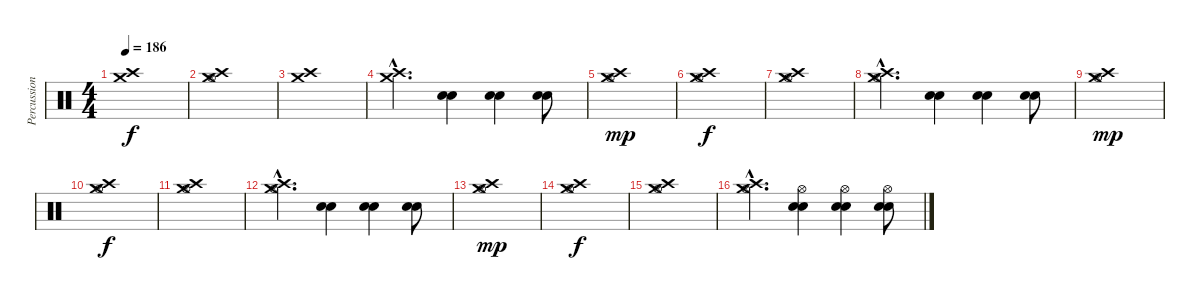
\track ("Percussion" "Percussion") {instrument percussion}
\staff {score}
\articulation defaults
\ts (4 4)
\tempo 186
\clef neutral
\ks c
("Crash high (hit)" "Crash medium (hit)").1{dy f} |
("Crash medium (hit)" "Crash high (hit)" "Hi-Hat (open)").1 |
("Crash high (hit)" "Crash medium (hit)").1 |
("Crash high (hit)"{hac} "Crash medium (hit)"{hac}).4{d} ("Electric Snare (hit)" "Electric Snare (hit)").4 ("Electric Snare (hit)" "Electric Snare (hit)").4 ("Electric Snare (hit)" "Electric Snare (hit)").8 |
("Crash high (hit)" "Crash medium (hit)" "Hi-Hat (open)").1{dy mp} |
("Crash medium (hit)" "Crash high (hit)" "Hi-Hat (open)").1{dy f} |
("Crash high (hit)" "Crash medium (hit)" "Hi-Hat (open)").1 |
("Crash high (hit)"{hac} "Crash medium (hit)"{hac} "Hi-Hat (open)"{hac}).4{d} ("Electric Snare (hit)" "Electric Snare (hit)").4 ("Electric Snare (hit)" "Electric Snare (hit)").4 ("Electric Snare (hit)" "Electric Snare (hit)").8 |
("Crash high (hit)" "Crash medium (hit)" "Hi-Hat (open)").1{dy mp} |
("Crash high (hit)" "Crash medium (hit)" "Hi-Hat (open)").1{dy f} |
("Crash high (hit)" "Crash medium (hit)" "Hi-Hat (open)").1 |
("Crash high (hit)"{hac} "Crash medium (hit)"{hac} "Hi-Hat (open)"{hac}).4{d} ("Electric Snare (hit)" "Electric Snare (hit)").4 ("Electric Snare (hit)" "Electric Snare (hit)").4 ("Electric Snare (hit)" "Electric Snare (hit)").8 |
("Crash high (hit)" "Crash medium (hit)" "Hi-Hat (open)").1{dy mp} |
("Crash high (hit)" "Crash medium (hit)" "Hi-Hat (open)").1{dy f} |
("Crash high (hit)" "Crash medium (hit)" "Hi-Hat (open)").1 |
("Crash high (hit)"{hac} "Crash medium (hit)"{hac} "Hi-Hat (open)"{hac}).4{d} ("Hi-Hat (open)" "Electric Snare (hit)" "Electric Snare (hit)").4 ("Hi-Hat (open)" "Electric Snare (hit)" "Electric Snare (hit)").4 ("Hi-Hat (open)" "Electric Snare (hit)" "Electric Snare (hit)").8
